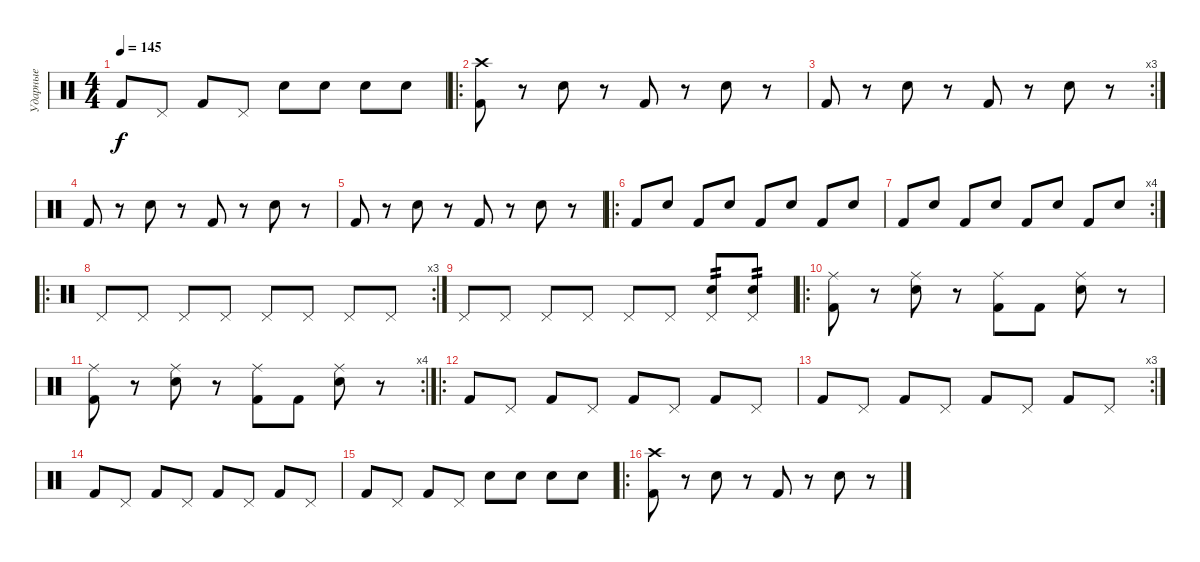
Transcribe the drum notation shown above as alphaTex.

\track ("Ударные" "Ударные") {instrument percussion}
\staff {score}
\articulation defaults
\ts (4 4)
\tempo 145
\clef neutral
\ks c "Kick (hit) 2".8{dy f} "Pedal Hi-Hat (hit)".8 "Kick (hit) 2".8 "Pedal Hi-Hat (hit)".8 "Electric Snare (hit)".8 "Electric Snare (hit)".8 "Electric Snare (hit)".8 "Electric Snare (hit)".8
|
\ro
("Crash high (hit)" "Kick (hit) 2").8 r.8 "Electric Snare (hit)".8 r.8 "Kick (hit) 2".8 r.8 "Electric Snare (hit)".8 r.8 |
\rc 3 "Kick (hit) 2".8
r.8 "Electric Snare (hit)".8 r.8 "Kick (hit) 2".8 r.8 "Electric Snare (hit)".8 r.8 |
"Kick (hit) 2".8 r.8 "Electric Snare (hit)".8 r.8 "Kick (hit) 2".8 r.8 "Electric Snare (hit)".8 r.8 |
"Kick (hit) 2".8 r.8 "Electric Snare (hit)".8 r.8 "Kick (hit) 2".8 r.8 "Electric Snare (hit)".8 r.8 |
\ro "Kick (hit) 2".8 "Electric Snare (hit)".8 "Kick (hit) 2".8 "Electric Snare (hit)".8 "Kick (hit) 2".8 "Electric Snare (hit)".8 "Kick (hit) 2".8 "Electric Snare (hit)".8
|
\rc 4 "Kick (hit) 2".8 "Electric Snare (hit)".8 "Kick (hit) 2".8 "Electric Snare (hit)".8 "Kick (hit) 2".8 "Electric Snare (hit)".8 "Kick (hit) 2".8 "Electric Snare (hit)".8
|
\ro
\rc 3 "Pedal Hi-Hat (hit)".8 "Pedal Hi-Hat (hit)".8 "Pedal Hi-Hat (hit)".8 "Pedal Hi-Hat (hit)".8 "Pedal Hi-Hat (hit)".8 "Pedal Hi-Hat (hit)".8 "Pedal Hi-Hat (hit)".8 "Pedal Hi-Hat (hit)".8
|
"Pedal Hi-Hat (hit)".8 "Pedal Hi-Hat (hit)".8 "Pedal Hi-Hat (hit)".8 "Pedal Hi-Hat (hit)".8 "Pedal Hi-Hat (hit)".8 "Pedal Hi-Hat (hit)".8 ("Pedal Hi-Hat (hit)" "Electric Snare (hit)").8{tp 2} ("Pedal Hi-Hat (hit)" "Electric Snare (hit)").8{tp 2} |
\ro
("Ride (middle)" "Kick (hit) 2").8 r.8 ("Ride (middle)" "Snare (hit) 2").8 r.8 ("Ride (middle)" "Kick (hit) 2").8 "Kick (hit) 2".8 ("Ride (middle)" "Snare (hit) 2").8 r.8 |
\rc 4
("Ride (middle)" "Kick (hit) 2").8 r.8 ("Ride (middle)" "Snare (hit) 2").8 r.8 ("Ride (middle)" "Kick (hit) 2").8 "Kick (hit) 2".8 ("Ride (middle)" "Snare (hit) 2").8 r.8 |
\ro "Kick (hit) 2".8 "Pedal Hi-Hat (hit)".8 "Kick (hit) 2".8 "Pedal Hi-Hat (hit)".8 "Kick (hit) 2".8 "Pedal Hi-Hat (hit)".8 "Kick (hit) 2".8 "Pedal Hi-Hat (hit)".8
|
\rc 3 "Kick (hit) 2".8 "Pedal Hi-Hat (hit)".8 "Kick (hit) 2".8 "Pedal Hi-Hat (hit)".8 "Kick (hit) 2".8 "Pedal Hi-Hat (hit)".8 "Kick (hit) 2".8 "Pedal Hi-Hat (hit)".8
|
"Kick (hit) 2".8 "Pedal Hi-Hat (hit)".8 "Kick (hit) 2".8 "Pedal Hi-Hat (hit)".8 "Kick (hit) 2".8 "Pedal Hi-Hat (hit)".8 "Kick (hit) 2".8 "Pedal Hi-Hat (hit)".8 |
"Kick (hit) 2".8 "Pedal Hi-Hat (hit)".8 "Kick (hit) 2".8 "Pedal Hi-Hat (hit)".8 "Electric Snare (hit)".8 "Electric Snare (hit)".8 "Electric Snare (hit)".8 "Electric Snare (hit)".8 |
\ro
("Crash high (hit)" "Kick (hit) 2").8 r.8 "Electric Snare (hit)".8 r.8 "Kick (hit) 2".8 r.8 "Electric Snare (hit)".8 r.8
